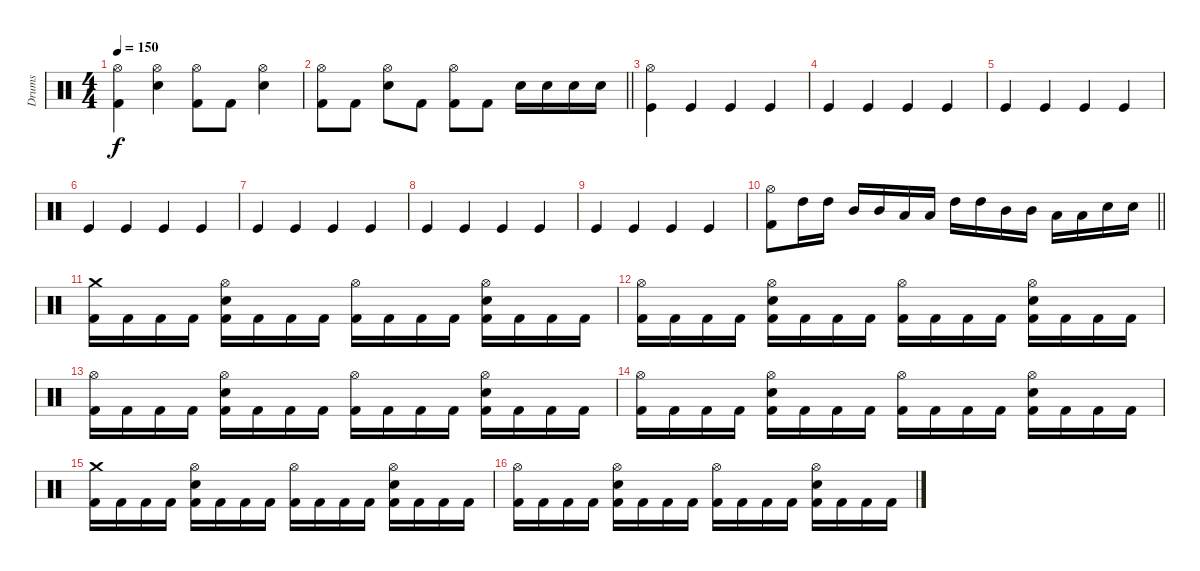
\track ("Drums" "Drums") {instrument percussion}
\staff {score}
\articulation defaults
\ts (4 4)
\tempo 150
\clef neutral
\ks c
("Hi-Hat (open)" "Kick (hit) 2").4{dy f} ("Hi-Hat (open)" "Electric Snare (hit)").4 ("Hi-Hat (open)" "Kick (hit) 2").8 "Kick (hit) 2".8 ("Hi-Hat (open)" "Electric Snare (hit)").4 |
\barLineRight lightlight
("Hi-Hat (open)" "Kick (hit) 2").8 "Kick (hit) 2".8 ("Hi-Hat (open)" "Electric Snare (hit)").8 "Kick (hit) 2".8 ("Hi-Hat (open)" "Kick (hit) 2").8 "Kick (hit) 2".8 "Electric Snare (hit)".16 "Electric Snare (hit)".16 "Electric Snare (hit)".16 "Electric Snare (hit)".16 |
\section ("" "")
("Hi-Hat (open)" "Kick (hit)").4 "Kick (hit)".4 "Kick (hit)".4 "Kick (hit)".4 |
"Kick (hit)".4 "Kick (hit)".4 "Kick (hit)".4 "Kick (hit)".4 |
"Kick (hit)".4 "Kick (hit)".4 "Kick (hit)".4 "Kick (hit)".4 |
"Kick (hit)".4 "Kick (hit)".4 "Kick (hit)".4 "Kick (hit)".4 |
"Kick (hit)".4 "Kick (hit)".4 "Kick (hit)".4 "Kick (hit)".4 |
"Kick (hit)".4 "Kick (hit)".4 "Kick (hit)".4 "Kick (hit)".4 |
"Kick (hit)".4 "Kick (hit)".4 "Kick (hit)".4 "Kick (hit)".4 |
\barLineRight lightlight
("Hi-Hat (open)" "Kick (hit) 2").8 "High Tom (hit)".16 "High Tom (hit)".16 "Mid Tom (hit)".16 "Mid Tom (hit)".16 "Low Tom (hit)".16 "Low Tom (hit)".16 "High Tom (hit)".16 "High Tom (hit)".16 "Mid Tom (hit)".16 "Mid Tom (hit)".16 "Low Tom (hit)".16 "Low Tom (hit)".16 "Electric Snare (hit)".16 "Electric Snare (hit)".16 |
\section ("" "")
("Kick (hit) 2" "Crash medium (hit)").16 "Kick (hit) 2".16 "Kick (hit) 2".16 "Kick (hit) 2".16 ("Kick (hit) 2" "Electric Snare (hit)" "Hi-Hat (open)").16 "Kick (hit) 2".16 "Kick (hit) 2".16 "Kick (hit) 2".16 ("Kick (hit) 2" "Hi-Hat (open)").16 "Kick (hit) 2".16 "Kick (hit) 2".16 "Kick (hit) 2".16 ("Kick (hit) 2" "Electric Snare (hit)" "Hi-Hat (open)").16 "Kick (hit) 2".16 "Kick (hit) 2".16 "Kick (hit) 2".16 |
("Kick (hit) 2" "Hi-Hat (open)").16 "Kick (hit) 2".16 "Kick (hit) 2".16 "Kick (hit) 2".16 ("Kick (hit) 2" "Electric Snare (hit)" "Hi-Hat (open)").16 "Kick (hit) 2".16 "Kick (hit) 2".16 "Kick (hit) 2".16 ("Kick (hit) 2" "Hi-Hat (open)").16 "Kick (hit) 2".16 "Kick (hit) 2".16 "Kick (hit) 2".16 ("Kick (hit) 2" "Electric Snare (hit)" "Hi-Hat (open)").16 "Kick (hit) 2".16 "Kick (hit) 2".16 "Kick (hit) 2".16 |
("Kick (hit) 2" "Hi-Hat (open)").16 "Kick (hit) 2".16 "Kick (hit) 2".16 "Kick (hit) 2".16 ("Kick (hit) 2" "Electric Snare (hit)" "Hi-Hat (open)").16 "Kick (hit) 2".16 "Kick (hit) 2".16 "Kick (hit) 2".16 ("Kick (hit) 2" "Hi-Hat (open)").16 "Kick (hit) 2".16 "Kick (hit) 2".16 "Kick (hit) 2".16 ("Kick (hit) 2" "Electric Snare (hit)" "Hi-Hat (open)").16 "Kick (hit) 2".16 "Kick (hit) 2".16 "Kick (hit) 2".16 |
("Kick (hit) 2" "Hi-Hat (open)").16 "Kick (hit) 2".16 "Kick (hit) 2".16 "Kick (hit) 2".16 ("Kick (hit) 2" "Electric Snare (hit)" "Hi-Hat (open)").16 "Kick (hit) 2".16 "Kick (hit) 2".16 "Kick (hit) 2".16 ("Kick (hit) 2" "Hi-Hat (open)").16 "Kick (hit) 2".16 "Kick (hit) 2".16 "Kick (hit) 2".16 ("Kick (hit) 2" "Electric Snare (hit)" "Hi-Hat (open)").16 "Kick (hit) 2".16 "Kick (hit) 2".16 "Kick (hit) 2".16 |
("Kick (hit) 2" "Crash medium (hit)").16 "Kick (hit) 2".16 "Kick (hit) 2".16 "Kick (hit) 2".16 ("Kick (hit) 2" "Electric Snare (hit)" "Hi-Hat (open)").16 "Kick (hit) 2".16 "Kick (hit) 2".16 "Kick (hit) 2".16 ("Kick (hit) 2" "Hi-Hat (open)").16 "Kick (hit) 2".16 "Kick (hit) 2".16 "Kick (hit) 2".16 ("Kick (hit) 2" "Electric Snare (hit)" "Hi-Hat (open)").16 "Kick (hit) 2".16 "Kick (hit) 2".16 "Kick (hit) 2".16 |
("Kick (hit) 2" "Hi-Hat (open)").16 "Kick (hit) 2".16 "Kick (hit) 2".16 "Kick (hit) 2".16 ("Kick (hit) 2" "Electric Snare (hit)" "Hi-Hat (open)").16 "Kick (hit) 2".16 "Kick (hit) 2".16 "Kick (hit) 2".16 ("Kick (hit) 2" "Hi-Hat (open)").16 "Kick (hit) 2".16 "Kick (hit) 2".16 "Kick (hit) 2".16 ("Kick (hit) 2" "Electric Snare (hit)" "Hi-Hat (open)").16 "Kick (hit) 2".16 "Kick (hit) 2".16 "Kick (hit) 2".16
